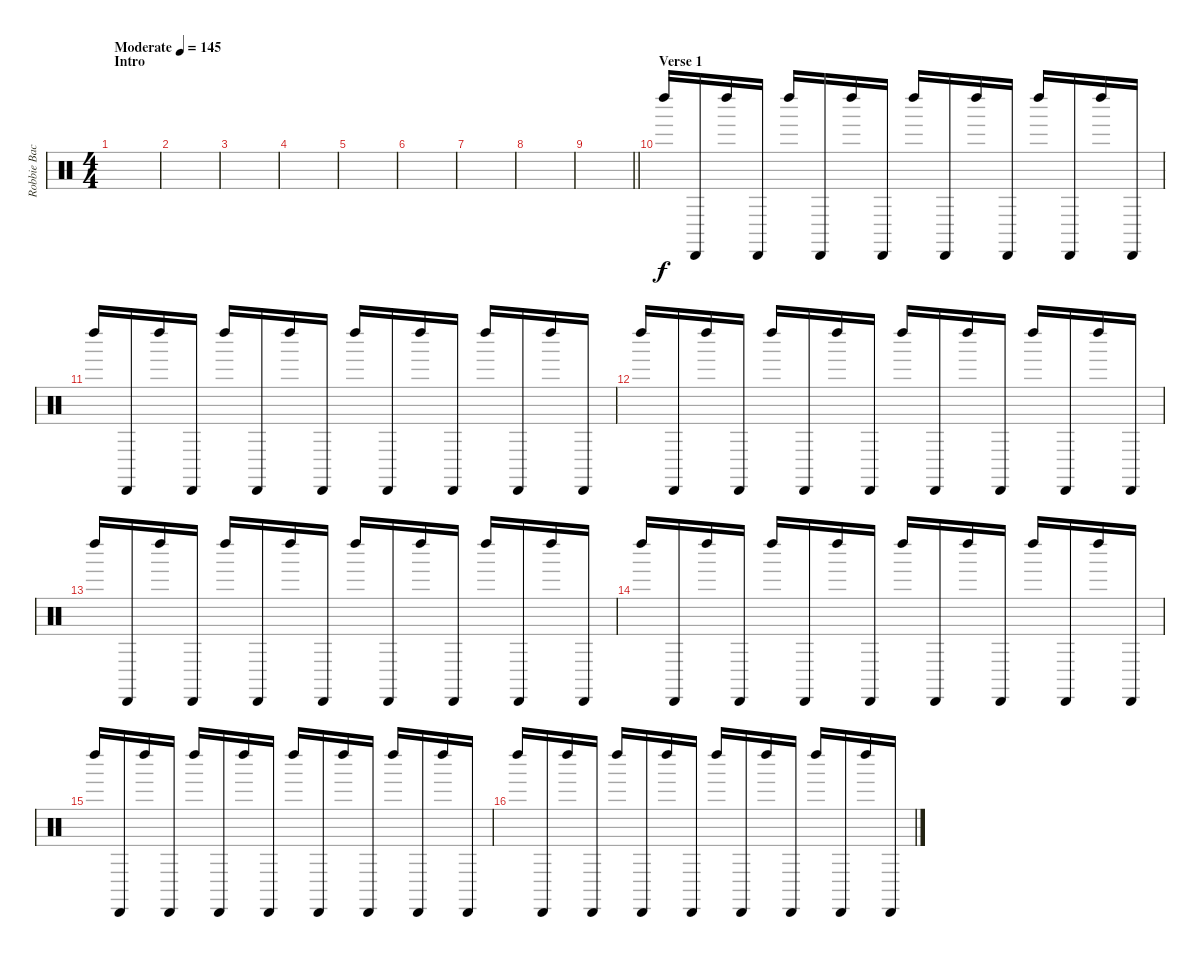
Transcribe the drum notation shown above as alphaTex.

\track ("Robbie Bachman 2" "Robbie Bac") {instrument percussion}
\staff {score}
\articulation defaults
\ts (4 4)
\section ("" "Intro")
\tempo (145 "Moderate")
\clef neutral
\ks c
|
|
|
|
|
|
|
|
\barLineRight lightlight
|
\section ("" "Verse 1")
"Left Maraca (hit)".16 "Cabasa (hit)".16 "Left Maraca (hit)".16 "Cabasa (hit)".16 "Left Maraca (hit)".16 "Cabasa (hit)".16 "Left Maraca (hit)".16 "Cabasa (hit)".16 "Left Maraca (hit)".16 "Cabasa (hit)".16 "Left Maraca (hit)".16 "Cabasa (hit)".16 "Left Maraca (hit)".16 "Cabasa (hit)".16 "Left Maraca (hit)".16 "Cabasa (hit)".16 |
"Left Maraca (hit)".16 "Cabasa (hit)".16 "Left Maraca (hit)".16 "Cabasa (hit)".16 "Left Maraca (hit)".16 "Cabasa (hit)".16 "Left Maraca (hit)".16 "Cabasa (hit)".16 "Left Maraca (hit)".16 "Cabasa (hit)".16 "Left Maraca (hit)".16 "Cabasa (hit)".16 "Left Maraca (hit)".16 "Cabasa (hit)".16 "Left Maraca (hit)".16 "Cabasa (hit)".16 |
"Left Maraca (hit)".16 "Cabasa (hit)".16 "Left Maraca (hit)".16 "Cabasa (hit)".16 "Left Maraca (hit)".16 "Cabasa (hit)".16 "Left Maraca (hit)".16 "Cabasa (hit)".16 "Left Maraca (hit)".16 "Cabasa (hit)".16 "Left Maraca (hit)".16 "Cabasa (hit)".16 "Left Maraca (hit)".16 "Cabasa (hit)".16 "Left Maraca (hit)".16 "Cabasa (hit)".16 |
"Left Maraca (hit)".16 "Cabasa (hit)".16 "Left Maraca (hit)".16 "Cabasa (hit)".16 "Left Maraca (hit)".16 "Cabasa (hit)".16 "Left Maraca (hit)".16 "Cabasa (hit)".16 "Left Maraca (hit)".16 "Cabasa (hit)".16 "Left Maraca (hit)".16 "Cabasa (hit)".16 "Left Maraca (hit)".16 "Cabasa (hit)".16 "Left Maraca (hit)".16 "Cabasa (hit)".16 |
"Left Maraca (hit)".16 "Cabasa (hit)".16 "Left Maraca (hit)".16 "Cabasa (hit)".16 "Left Maraca (hit)".16 "Cabasa (hit)".16 "Left Maraca (hit)".16 "Cabasa (hit)".16 "Left Maraca (hit)".16 "Cabasa (hit)".16 "Left Maraca (hit)".16 "Cabasa (hit)".16 "Left Maraca (hit)".16 "Cabasa (hit)".16 "Left Maraca (hit)".16 "Cabasa (hit)".16 |
"Left Maraca (hit)".16 "Cabasa (hit)".16 "Left Maraca (hit)".16 "Cabasa (hit)".16 "Left Maraca (hit)".16 "Cabasa (hit)".16 "Left Maraca (hit)".16 "Cabasa (hit)".16 "Left Maraca (hit)".16 "Cabasa (hit)".16 "Left Maraca (hit)".16 "Cabasa (hit)".16 "Left Maraca (hit)".16 "Cabasa (hit)".16 "Left Maraca (hit)".16 "Cabasa (hit)".16 |
"Left Maraca (hit)".16 "Cabasa (hit)".16 "Left Maraca (hit)".16 "Cabasa (hit)".16 "Left Maraca (hit)".16 "Cabasa (hit)".16 "Left Maraca (hit)".16 "Cabasa (hit)".16 "Left Maraca (hit)".16 "Cabasa (hit)".16 "Left Maraca (hit)".16 "Cabasa (hit)".16 "Left Maraca (hit)".16 "Cabasa (hit)".16 "Left Maraca (hit)".16 "Cabasa (hit)".16
